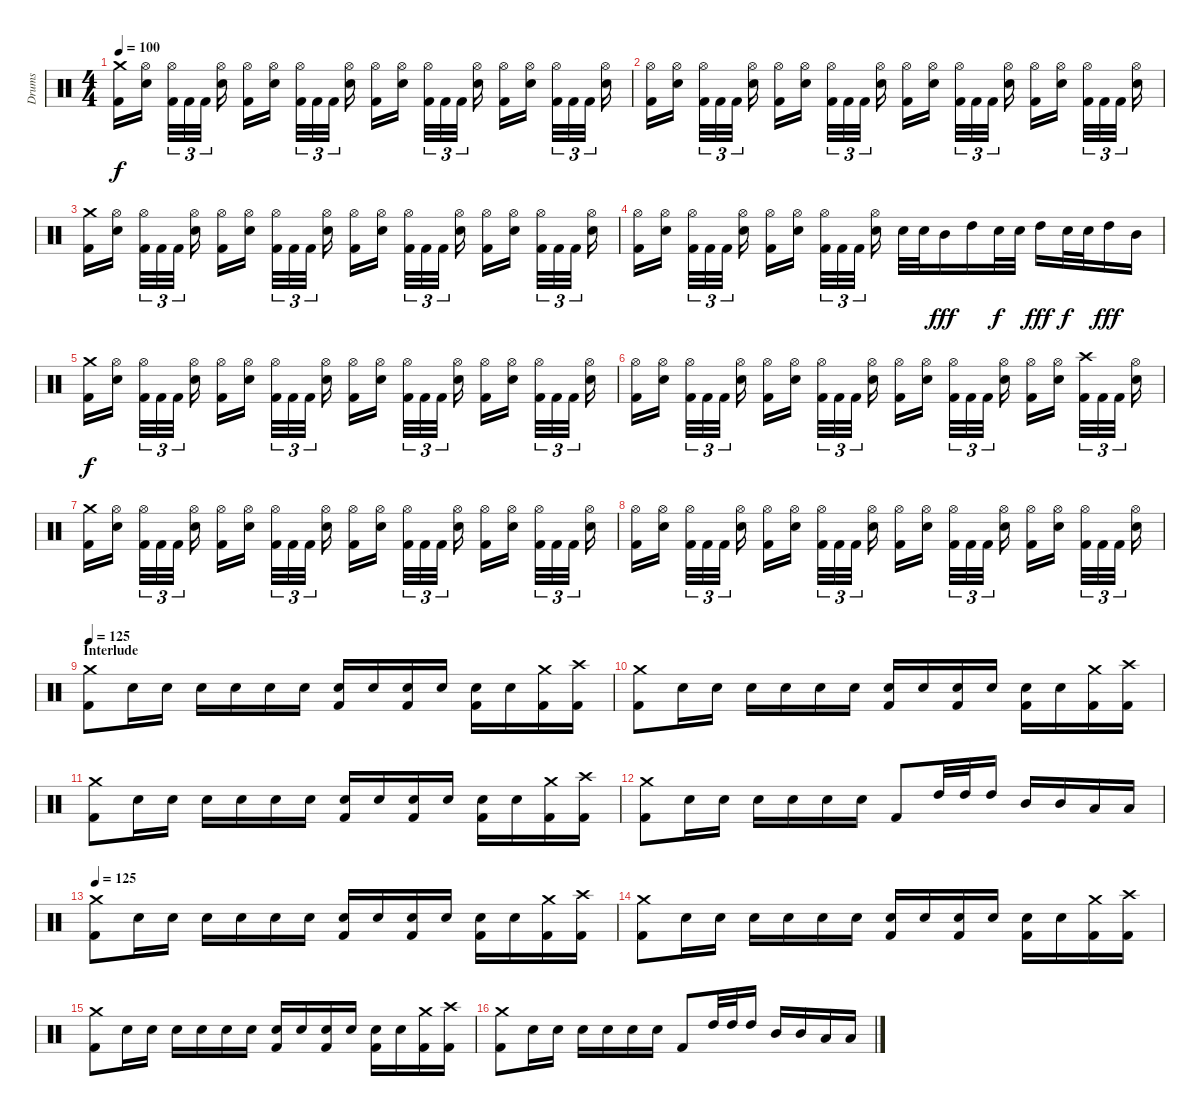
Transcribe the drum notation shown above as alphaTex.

\track ("Drums" "Drums") {instrument percussion}
\staff {score}
\articulation defaults
\ts (4 4)
\tempo 100
\clef neutral
\ks c
("Kick (hit) 2" "Crash medium (hit)").16{dy f} ("Electric Snare (hit)" "Hi-Hat (open)").16 ("Kick (hit) 2" "Hi-Hat (open)").32{tu (3 2)} "Kick (hit) 2".32{tu (3 2)} "Kick (hit) 2".32{tu (3 2)} ("Electric Snare (hit)" "Hi-Hat (open)").16 ("Kick (hit) 2" "Hi-Hat (open)").16 ("Electric Snare (hit)" "Hi-Hat (open)").16 ("Kick (hit) 2" "Hi-Hat (open)").32{tu (3 2)} "Kick (hit) 2".32{tu (3 2)} "Kick (hit) 2".32{tu (3 2)} ("Electric Snare (hit)" "Hi-Hat (open)").16 ("Kick (hit) 2" "Hi-Hat (open)").16 ("Electric Snare (hit)" "Hi-Hat (open)").16 ("Kick (hit) 2" "Hi-Hat (open)").32{tu (3 2)} "Kick (hit) 2".32{tu (3 2)} "Kick (hit) 2".32{tu (3 2)} ("Electric Snare (hit)" "Hi-Hat (open)").16 ("Kick (hit) 2" "Hi-Hat (open)").16 ("Electric Snare (hit)" "Hi-Hat (open)").16 ("Kick (hit) 2" "Hi-Hat (open)").32{tu (3 2)} "Kick (hit) 2".32{tu (3 2)} "Kick (hit) 2".32{tu (3 2)} ("Electric Snare (hit)" "Hi-Hat (open)").16 |
("Kick (hit) 2" "Hi-Hat (open)").16 ("Electric Snare (hit)" "Hi-Hat (open)").16 ("Kick (hit) 2" "Hi-Hat (open)").32{tu (3 2)} "Kick (hit) 2".32{tu (3 2)} "Kick (hit) 2".32{tu (3 2)} ("Electric Snare (hit)" "Hi-Hat (open)").16 ("Kick (hit) 2" "Hi-Hat (open)").16 ("Electric Snare (hit)" "Hi-Hat (open)").16 ("Kick (hit) 2" "Hi-Hat (open)").32{tu (3 2)} "Kick (hit) 2".32{tu (3 2)} "Kick (hit) 2".32{tu (3 2)} ("Electric Snare (hit)" "Hi-Hat (open)").16 ("Kick (hit) 2" "Hi-Hat (open)").16 ("Electric Snare (hit)" "Hi-Hat (open)").16 ("Kick (hit) 2" "Hi-Hat (open)").32{tu (3 2)} "Kick (hit) 2".32{tu (3 2)} "Kick (hit) 2".32{tu (3 2)} ("Electric Snare (hit)" "Hi-Hat (open)").16 ("Kick (hit) 2" "Hi-Hat (open)").16 ("Electric Snare (hit)" "Hi-Hat (open)").16 ("Kick (hit) 2" "Hi-Hat (open)").32{tu (3 2)} "Kick (hit) 2".32{tu (3 2)} "Kick (hit) 2".32{tu (3 2)} ("Electric Snare (hit)" "Hi-Hat (open)").16 |
("Kick (hit) 2" "Crash medium (hit)").16 ("Electric Snare (hit)" "Hi-Hat (open)").16 ("Kick (hit) 2" "Hi-Hat (open)").32{tu (3 2)} "Kick (hit) 2".32{tu (3 2)} "Kick (hit) 2".32{tu (3 2)} ("Electric Snare (hit)" "Hi-Hat (open)").16 ("Kick (hit) 2" "Hi-Hat (open)").16 ("Electric Snare (hit)" "Hi-Hat (open)").16 ("Kick (hit) 2" "Hi-Hat (open)").32{tu (3 2)} "Kick (hit) 2".32{tu (3 2)} "Kick (hit) 2".32{tu (3 2)} ("Electric Snare (hit)" "Hi-Hat (open)").16 ("Kick (hit) 2" "Hi-Hat (open)").16 ("Electric Snare (hit)" "Hi-Hat (open)").16 ("Kick (hit) 2" "Hi-Hat (open)").32{tu (3 2)} "Kick (hit) 2".32{tu (3 2)} "Kick (hit) 2".32{tu (3 2)} ("Electric Snare (hit)" "Hi-Hat (open)").16 ("Kick (hit) 2" "Hi-Hat (open)").16 ("Electric Snare (hit)" "Hi-Hat (open)").16 ("Kick (hit) 2" "Hi-Hat (open)").32{tu (3 2)} "Kick (hit) 2".32{tu (3 2)} "Kick (hit) 2".32{tu (3 2)} ("Electric Snare (hit)" "Hi-Hat (open)").16 |
("Kick (hit) 2" "Hi-Hat (open)").16 ("Electric Snare (hit)" "Hi-Hat (open)").16 ("Kick (hit) 2" "Hi-Hat (open)").32{tu (3 2)} "Kick (hit) 2".32{tu (3 2)} "Kick (hit) 2".32{tu (3 2)} ("Electric Snare (hit)" "Hi-Hat (open)").16 ("Kick (hit) 2" "Hi-Hat (open)").16 ("Electric Snare (hit)" "Hi-Hat (open)").16 ("Kick (hit) 2" "Hi-Hat (open)").32{tu (3 2)} "Kick (hit) 2".32{tu (3 2)} "Kick (hit) 2".32{tu (3 2)} ("Electric Snare (hit)" "Hi-Hat (open)").16 "Electric Snare (hit)".32 "Electric Snare (hit)".32 "Mid Tom (hit)".16{dy fff} "High Tom (hit)".16 "Electric Snare (hit)".32{dy f} "Electric Snare (hit)".32 "High Tom (hit)".16{dy fff} "Electric Snare (hit)".32{dy f} "Electric Snare (hit)".32 "High Tom (hit)".16{dy fff} "Mid Tom (hit)".16 |
("Kick (hit) 2" "Crash medium (hit)").16{dy f} ("Electric Snare (hit)" "Hi-Hat (open)").16 ("Kick (hit) 2" "Hi-Hat (open)").32{tu (3 2)} "Kick (hit) 2".32{tu (3 2)} "Kick (hit) 2".32{tu (3 2)} ("Electric Snare (hit)" "Hi-Hat (open)").16 ("Kick (hit) 2" "Hi-Hat (open)").16 ("Electric Snare (hit)" "Hi-Hat (open)").16 ("Kick (hit) 2" "Hi-Hat (open)").32{tu (3 2)} "Kick (hit) 2".32{tu (3 2)} "Kick (hit) 2".32{tu (3 2)} ("Electric Snare (hit)" "Hi-Hat (open)").16 ("Kick (hit) 2" "Hi-Hat (open)").16 ("Electric Snare (hit)" "Hi-Hat (open)").16 ("Kick (hit) 2" "Hi-Hat (open)").32{tu (3 2)} "Kick (hit) 2".32{tu (3 2)} "Kick (hit) 2".32{tu (3 2)} ("Electric Snare (hit)" "Hi-Hat (open)").16 ("Kick (hit) 2" "Hi-Hat (open)").16 ("Electric Snare (hit)" "Hi-Hat (open)").16 ("Kick (hit) 2" "Hi-Hat (open)").32{tu (3 2)} "Kick (hit) 2".32{tu (3 2)} "Kick (hit) 2".32{tu (3 2)} ("Electric Snare (hit)" "Hi-Hat (open)").16 |
("Kick (hit) 2" "Hi-Hat (open)").16 ("Electric Snare (hit)" "Hi-Hat (open)").16 ("Kick (hit) 2" "Hi-Hat (open)").32{tu (3 2)} "Kick (hit) 2".32{tu (3 2)} "Kick (hit) 2".32{tu (3 2)} ("Electric Snare (hit)" "Hi-Hat (open)").16 ("Kick (hit) 2" "Hi-Hat (open)").16 ("Electric Snare (hit)" "Hi-Hat (open)").16 ("Kick (hit) 2" "Hi-Hat (open)").32{tu (3 2)} "Kick (hit) 2".32{tu (3 2)} "Kick (hit) 2".32{tu (3 2)} ("Electric Snare (hit)" "Hi-Hat (open)").16 ("Kick (hit) 2" "Hi-Hat (open)").16 ("Electric Snare (hit)" "Hi-Hat (open)").16 ("Kick (hit) 2" "Hi-Hat (open)").32{tu (3 2)} "Kick (hit) 2".32{tu (3 2)} "Kick (hit) 2".32{tu (3 2)} ("Electric Snare (hit)" "Hi-Hat (open)").16 ("Kick (hit) 2" "Hi-Hat (open)").16 ("Electric Snare (hit)" "Hi-Hat (open)").16 ("Kick (hit) 2" "Crash high (hit)").32{tu (3 2)} "Kick (hit) 2".32{tu (3 2)} "Kick (hit) 2".32{tu (3 2)} ("Electric Snare (hit)" "Hi-Hat (open)").16 |
("Kick (hit) 2" "Crash medium (hit)").16 ("Electric Snare (hit)" "Hi-Hat (open)").16 ("Kick (hit) 2" "Hi-Hat (open)").32{tu (3 2)} "Kick (hit) 2".32{tu (3 2)} "Kick (hit) 2".32{tu (3 2)} ("Electric Snare (hit)" "Hi-Hat (open)").16 ("Kick (hit) 2" "Hi-Hat (open)").16 ("Electric Snare (hit)" "Hi-Hat (open)").16 ("Kick (hit) 2" "Hi-Hat (open)").32{tu (3 2)} "Kick (hit) 2".32{tu (3 2)} "Kick (hit) 2".32{tu (3 2)} ("Electric Snare (hit)" "Hi-Hat (open)").16 ("Kick (hit) 2" "Hi-Hat (open)").16 ("Electric Snare (hit)" "Hi-Hat (open)").16 ("Kick (hit) 2" "Hi-Hat (open)").32{tu (3 2)} "Kick (hit) 2".32{tu (3 2)} "Kick (hit) 2".32{tu (3 2)} ("Electric Snare (hit)" "Hi-Hat (open)").16 ("Kick (hit) 2" "Hi-Hat (open)").16 ("Electric Snare (hit)" "Hi-Hat (open)").16 ("Kick (hit) 2" "Hi-Hat (open)").32{tu (3 2)} "Kick (hit) 2".32{tu (3 2)} "Kick (hit) 2".32{tu (3 2)} ("Electric Snare (hit)" "Hi-Hat (open)").16 |
("Kick (hit) 2" "Hi-Hat (open)").16 ("Electric Snare (hit)" "Hi-Hat (open)").16 ("Kick (hit) 2" "Hi-Hat (open)").32{tu (3 2)} "Kick (hit) 2".32{tu (3 2)} "Kick (hit) 2".32{tu (3 2)} ("Electric Snare (hit)" "Hi-Hat (open)").16 ("Kick (hit) 2" "Hi-Hat (open)").16 ("Electric Snare (hit)" "Hi-Hat (open)").16 ("Kick (hit) 2" "Hi-Hat (open)").32{tu (3 2)} "Kick (hit) 2".32{tu (3 2)} "Kick (hit) 2".32{tu (3 2)} ("Electric Snare (hit)" "Hi-Hat (open)").16 ("Kick (hit) 2" "Hi-Hat (open)").16 ("Electric Snare (hit)" "Hi-Hat (open)").16 ("Kick (hit) 2" "Hi-Hat (open)").32{tu (3 2)} "Kick (hit) 2".32{tu (3 2)} "Kick (hit) 2".32{tu (3 2)} ("Electric Snare (hit)" "Hi-Hat (open)").16 ("Kick (hit) 2" "Hi-Hat (open)").16 ("Electric Snare (hit)" "Hi-Hat (open)").16 ("Kick (hit) 2" "Hi-Hat (open)").32{tu (3 2)} "Kick (hit) 2".32{tu (3 2)} "Kick (hit) 2".32{tu (3 2)} ("Electric Snare (hit)" "Hi-Hat (open)").16 |
\section ("" "Interlude")
\tempo 125
("Kick (hit) 2" "Crash medium (hit)").8 "Electric Snare (hit)".16 "Electric Snare (hit)".16 "Electric Snare (hit)".16 "Electric Snare (hit)".16 "Electric Snare (hit)".16 "Electric Snare (hit)".16 ("Kick (hit) 2" "Electric Snare (hit)").16 "Electric Snare (hit)".16 ("Kick (hit) 2" "Electric Snare (hit)").16 "Electric Snare (hit)".16 ("Kick (hit) 2" "Electric Snare (hit)").16 "Electric Snare (hit)".16 ("Kick (hit) 2" "Crash medium (hit)").16 ("Kick (hit) 2" "Crash high (hit)").16 |
("Kick (hit) 2" "Crash medium (hit)").8 "Electric Snare (hit)".16 "Electric Snare (hit)".16 "Electric Snare (hit)".16 "Electric Snare (hit)".16 "Electric Snare (hit)".16 "Electric Snare (hit)".16 ("Kick (hit) 2" "Electric Snare (hit)").16 "Electric Snare (hit)".16 ("Kick (hit) 2" "Electric Snare (hit)").16 "Electric Snare (hit)".16 ("Kick (hit) 2" "Electric Snare (hit)").16 "Electric Snare (hit)".16 ("Kick (hit) 2" "Crash medium (hit)").16 ("Kick (hit) 2" "Crash high (hit)").16 |
("Kick (hit) 2" "Crash medium (hit)").8 "Electric Snare (hit)".16 "Electric Snare (hit)".16 "Electric Snare (hit)".16 "Electric Snare (hit)".16 "Electric Snare (hit)".16 "Electric Snare (hit)".16 ("Kick (hit) 2" "Electric Snare (hit)").16 "Electric Snare (hit)".16 ("Kick (hit) 2" "Electric Snare (hit)").16 "Electric Snare (hit)".16 ("Kick (hit) 2" "Electric Snare (hit)").16 "Electric Snare (hit)".16 ("Kick (hit) 2" "Crash medium (hit)").16 ("Kick (hit) 2" "Crash high (hit)").16 |
("Kick (hit) 2" "Crash medium (hit)").8 "Electric Snare (hit)".16 "Electric Snare (hit)".16 "Electric Snare (hit)".16 "Electric Snare (hit)".16 "Electric Snare (hit)".16 "Electric Snare (hit)".16 "Kick (hit) 2".8 "High Tom (hit)".32 "High Tom (hit)".32 "High Tom (hit)".16 "Mid Tom (hit)".16 "Mid Tom (hit)".16 "Low Tom (hit)".16 "Low Tom (hit)".16 |
\tempo 125
("Kick (hit) 2" "Crash medium (hit)").8 "Electric Snare (hit)".16 "Electric Snare (hit)".16 "Electric Snare (hit)".16 "Electric Snare (hit)".16 "Electric Snare (hit)".16 "Electric Snare (hit)".16 ("Kick (hit) 2" "Electric Snare (hit)").16 "Electric Snare (hit)".16 ("Kick (hit) 2" "Electric Snare (hit)").16 "Electric Snare (hit)".16 ("Kick (hit) 2" "Electric Snare (hit)").16 "Electric Snare (hit)".16 ("Kick (hit) 2" "Crash medium (hit)").16 ("Kick (hit) 2" "Crash high (hit)").16 |
("Kick (hit) 2" "Crash medium (hit)").8 "Electric Snare (hit)".16 "Electric Snare (hit)".16 "Electric Snare (hit)".16 "Electric Snare (hit)".16 "Electric Snare (hit)".16 "Electric Snare (hit)".16 ("Kick (hit) 2" "Electric Snare (hit)").16 "Electric Snare (hit)".16 ("Kick (hit) 2" "Electric Snare (hit)").16 "Electric Snare (hit)".16 ("Kick (hit) 2" "Electric Snare (hit)").16 "Electric Snare (hit)".16 ("Kick (hit) 2" "Crash medium (hit)").16 ("Kick (hit) 2" "Crash high (hit)").16 |
("Kick (hit) 2" "Crash medium (hit)").8 "Electric Snare (hit)".16 "Electric Snare (hit)".16 "Electric Snare (hit)".16 "Electric Snare (hit)".16 "Electric Snare (hit)".16 "Electric Snare (hit)".16 ("Kick (hit) 2" "Electric Snare (hit)").16 "Electric Snare (hit)".16 ("Kick (hit) 2" "Electric Snare (hit)").16 "Electric Snare (hit)".16 ("Kick (hit) 2" "Electric Snare (hit)").16 "Electric Snare (hit)".16 ("Kick (hit) 2" "Crash medium (hit)").16 ("Kick (hit) 2" "Crash high (hit)").16 |
("Kick (hit) 2" "Crash medium (hit)").8 "Electric Snare (hit)".16 "Electric Snare (hit)".16 "Electric Snare (hit)".16 "Electric Snare (hit)".16 "Electric Snare (hit)".16 "Electric Snare (hit)".16 "Kick (hit) 2".8 "High Tom (hit)".32 "High Tom (hit)".32 "High Tom (hit)".16 "Mid Tom (hit)".16 "Mid Tom (hit)".16 "Low Tom (hit)".16 "Low Tom (hit)".16
